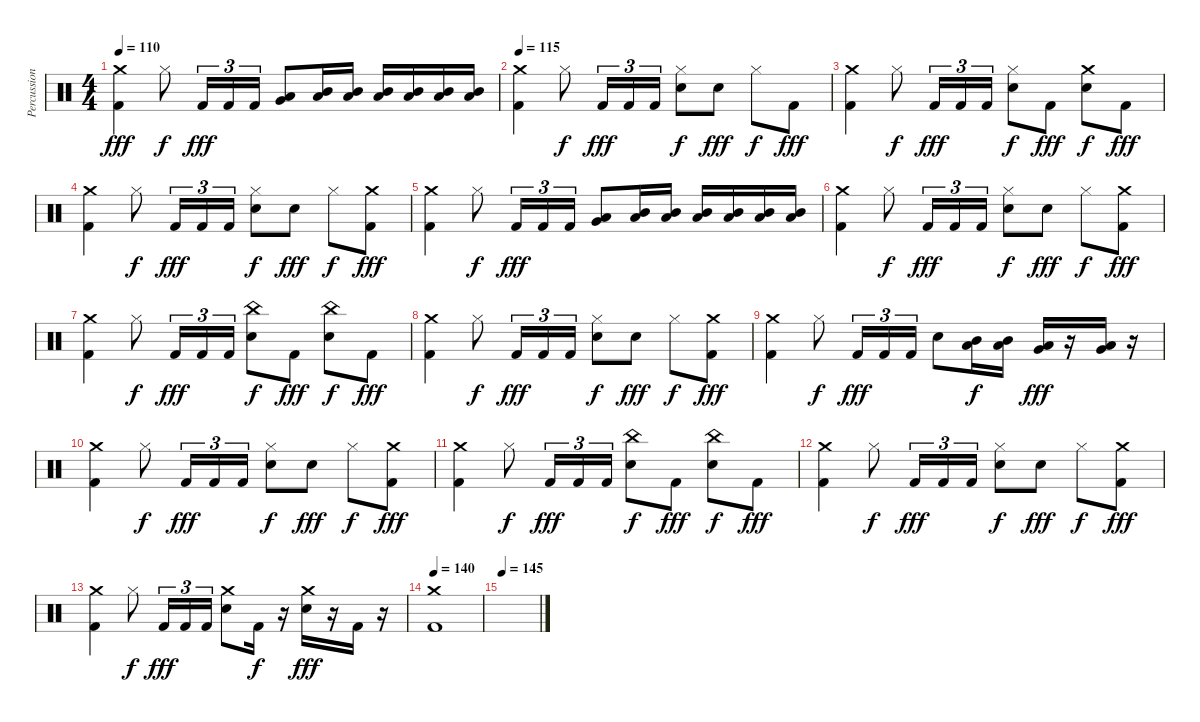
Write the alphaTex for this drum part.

\track ("Percussion" "Percussion") {instrument percussion}
\staff {score}
\articulation defaults
\ts (4 4)
\tempo 110
\clef neutral
\ks c
("Crash medium (hit)" "Kick (hit) 2").4{dy fff} "Hi-Hat (closed)".8{dy f} "Kick (hit) 2".16{tu (3 2) dy fff} "Kick (hit) 2".16{tu (3 2)} "Kick (hit) 2".16{tu (3 2)} ("Low Tom (hit)" "Very Low Tom (hit)").8 ("Mid Tom (hit)" "Low Tom (hit)").16 ("Mid Tom (hit)" "Low Tom (hit)").16 ("Mid Tom (hit)" "Low Tom (hit)").16 ("Mid Tom (hit)" "Low Tom (hit)").16 ("Mid Tom (hit)" "Low Tom (hit)").16 ("Mid Tom (hit)" "Low Tom (hit)").16 |
\tempo 115
("Crash medium (hit)" "Kick (hit) 2").4 "Hi-Hat (closed)".8{dy f} "Kick (hit) 2".16{tu (3 2) dy fff} "Kick (hit) 2".16{tu (3 2)} "Kick (hit) 2".16{tu (3 2)} ("Hi-Hat (closed)" "Snare (hit) 2").8{dy f} "Snare (hit) 2".8{dy fff} "Hi-Hat (closed)".8{dy f} "Kick (hit) 2".8{dy fff} |
("Crash medium (hit)" "Kick (hit) 2").4 "Hi-Hat (closed)".8{dy f} "Kick (hit) 2".16{tu (3 2) dy fff} "Kick (hit) 2".16{tu (3 2)} "Kick (hit) 2".16{tu (3 2)} ("Hi-Hat (closed)" "Snare (hit) 2").8{dy f} "Kick (hit) 2".8{dy fff} ("Crash medium (hit)" "Snare (hit) 2").8{dy f} "Kick (hit) 2".8{dy fff} |
("Crash medium (hit)" "Kick (hit) 2").4 "Hi-Hat (closed)".8{dy f} "Kick (hit) 2".16{tu (3 2) dy fff} "Kick (hit) 2".16{tu (3 2)} "Kick (hit) 2".16{tu (3 2)} ("Hi-Hat (closed)" "Snare (hit) 2").8{dy f} "Snare (hit) 2".8{dy fff} "Hi-Hat (closed)".8{dy f} ("Crash medium (hit)" "Kick (hit) 2").8{dy fff} |
("Crash medium (hit)" "Kick (hit) 2").4 "Hi-Hat (closed)".8{dy f} "Kick (hit) 2".16{tu (3 2) dy fff} "Kick (hit) 2".16{tu (3 2)} "Kick (hit) 2".16{tu (3 2)} ("Low Tom (hit)" "Very Low Tom (hit)").8 ("Mid Tom (hit)" "Low Tom (hit)").16 ("Mid Tom (hit)" "Low Tom (hit)").16 ("Mid Tom (hit)" "Low Tom (hit)").16 ("Mid Tom (hit)" "Low Tom (hit)").16 ("Mid Tom (hit)" "Low Tom (hit)").16 ("Mid Tom (hit)" "Low Tom (hit)").16 |
("Crash medium (hit)" "Kick (hit) 2").4 "Hi-Hat (closed)".8{dy f} "Kick (hit) 2".16{tu (3 2) dy fff} "Kick (hit) 2".16{tu (3 2)} "Kick (hit) 2".16{tu (3 2)} ("Hi-Hat (closed)" "Snare (hit) 2").8{dy f} "Snare (hit) 2".8{dy fff} "Hi-Hat (closed)".8{dy f} ("Crash medium (hit)" "Kick (hit) 2").8{dy fff} |
("Crash medium (hit)" "Kick (hit) 2").4 "Hi-Hat (closed)".8{dy f} "Kick (hit) 2".16{tu (3 2) dy fff} "Kick (hit) 2".16{tu (3 2)} "Kick (hit) 2".16{tu (3 2)} ("China (hit)" "Snare (hit) 2").8{dy f} "Kick (hit) 2".8{dy fff} ("China (hit)" "Snare (hit) 2").8{dy f} "Kick (hit) 2".8{dy fff} |
("Crash medium (hit)" "Kick (hit) 2").4 "Hi-Hat (closed)".8{dy f} "Kick (hit) 2".16{tu (3 2) dy fff} "Kick (hit) 2".16{tu (3 2)} "Kick (hit) 2".16{tu (3 2)} ("Hi-Hat (closed)" "Snare (hit) 2").8{dy f} "Snare (hit) 2".8{dy fff} "Hi-Hat (closed)".8{dy f} ("Crash medium (hit)" "Kick (hit) 2").8{dy fff} |
("Crash medium (hit)" "Kick (hit) 2").4 "Hi-Hat (closed)".8{dy f} "Kick (hit) 2".16{tu (3 2) dy fff} "Kick (hit) 2".16{tu (3 2)} "Kick (hit) 2".16{tu (3 2)} "Snare (hit) 2".8 ("Mid Tom (hit)" "Low Tom (hit)").16{dy f} ("Mid Tom (hit)" "Low Tom (hit)").16 ("Very Low Tom (hit)" "Low Tom (hit)").16{dy fff} r.16 ("Very Low Tom (hit)" "Low Tom (hit)").16 r.16 |
("Crash medium (hit)" "Kick (hit) 2").4 "Hi-Hat (closed)".8{dy f} "Kick (hit) 2".16{tu (3 2) dy fff} "Kick (hit) 2".16{tu (3 2)} "Kick (hit) 2".16{tu (3 2)} ("Hi-Hat (closed)" "Snare (hit) 2").8{dy f} "Snare (hit) 2".8{dy fff} "Hi-Hat (closed)".8{dy f} ("Crash medium (hit)" "Kick (hit) 2").8{dy fff} |
("Crash medium (hit)" "Kick (hit) 2").4 "Hi-Hat (closed)".8{dy f} "Kick (hit) 2".16{tu (3 2) dy fff} "Kick (hit) 2".16{tu (3 2)} "Kick (hit) 2".16{tu (3 2)} ("China (hit)" "Snare (hit) 2").8{dy f} "Kick (hit) 2".8{dy fff} ("China (hit)" "Snare (hit) 2").8{dy f} "Kick (hit) 2".8{dy fff} |
("Crash medium (hit)" "Kick (hit) 2").4 "Hi-Hat (closed)".8{dy f} "Kick (hit) 2".16{tu (3 2) dy fff} "Kick (hit) 2".16{tu (3 2)} "Kick (hit) 2".16{tu (3 2)} ("Hi-Hat (closed)" "Snare (hit) 2").8{dy f} "Snare (hit) 2".8{dy fff} "Hi-Hat (closed)".8{dy f} ("Crash medium (hit)" "Kick (hit) 2").8{dy fff} |
("Crash medium (hit)" "Kick (hit) 2").4 "Hi-Hat (closed)".8{dy f} "Kick (hit) 2".16{tu (3 2) dy fff} "Kick (hit) 2".16{tu (3 2)} "Kick (hit) 2".16{tu (3 2)} ("Crash medium (hit)" "Snare (hit) 2").8 "Kick (hit) 2".16{dy f} r.16 ("Crash medium (hit)" "Snare (hit) 2").16{dy fff} r.16 "Kick (hit) 2".16 r.16 |
\tempo 140
("Crash medium (hit)" "Kick (hit) 2").1 |
\tempo 145
